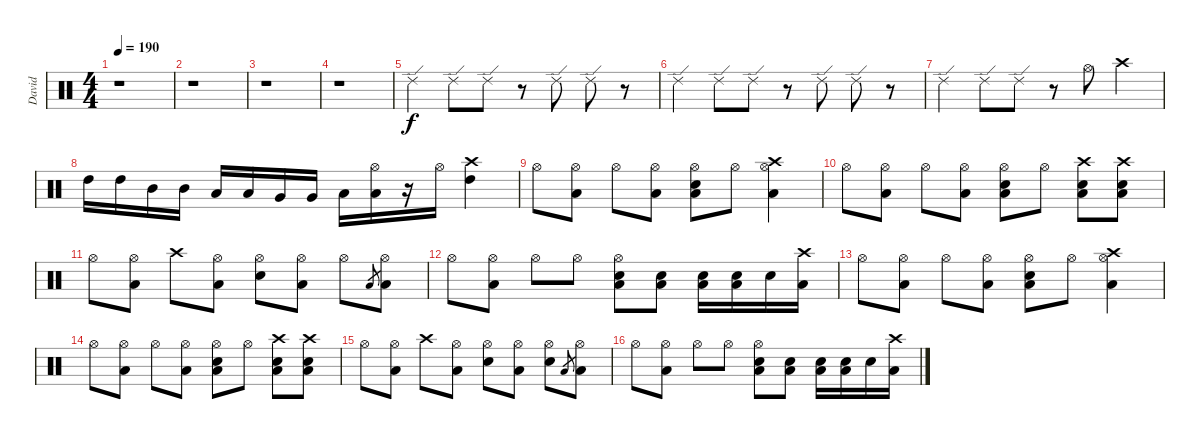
\track ("David" "David") {instrument percussion}
\staff {score}
\articulation defaults
\ts (4 4)
\tempo 190
\clef neutral
\ks c
r.1{dy f} |
r.1 |
r.1 |
r.1 |
"Ride (edge) 2".4 "Ride (edge) 2".8 "Ride (edge) 2".8 r.8 "Ride (edge) 2".8 "Ride (edge) 2".8 r.8 |
"Ride (edge) 2".4 "Ride (edge) 2".8 "Ride (edge) 2".8 r.8 "Ride (edge) 2".8 "Ride (edge) 2".8 r.8 |
"Ride (edge) 2".4 "Ride (edge) 2".8 "Ride (edge) 2".8 r.8 "Hi-Hat (open)".8 "Crash high (hit)".4 |
"High Tom (hit)".16 "High Tom (hit)".16 "Mid Tom (hit)".16 "Mid Tom (hit)".16 "Low Tom (hit)".16 "Low Tom (hit)".16 "Very Low Tom (hit)".16 "Very Low Tom (hit)".16 "Low Floor Tom (hit)".16 ("Hi-Hat (open)" "Low Floor Tom (hit)").16 r.16 "Hi-Hat (open)".16 ("Crash high (hit)" "High Tom (hit)").4 |
"Hi-Hat (open)".8 ("Hi-Hat (open)" "Low Tom (hit)").8 "Hi-Hat (open)".8 ("Hi-Hat (open)" "Low Tom (hit)").8 ("Hi-Hat (open)" "Electric Snare (hit)" "Low Tom (hit)").8 "Hi-Hat (open)".8 ("Crash high (hit)" "Hi-Hat (open)" "Low Tom (hit)").4 |
"Hi-Hat (open)".8 ("Hi-Hat (open)" "Low Tom (hit)").8 "Hi-Hat (open)".8 ("Hi-Hat (open)" "Low Tom (hit)").8 ("Hi-Hat (open)" "Electric Snare (hit)" "Low Tom (hit)").8 "Hi-Hat (open)".8 ("Crash high (hit)" "Electric Snare (hit)" "Low Tom (hit)").8 ("Crash high (hit)" "Electric Snare (hit)" "Low Tom (hit)").8 |
"Hi-Hat (open)".8 ("Hi-Hat (open)" "Low Tom (hit)").8 "Crash high (hit)".8 ("Hi-Hat (open)" "Low Tom (hit)").8 ("Hi-Hat (open)" "Electric Snare (hit)").8 ("Hi-Hat (open)" "Low Tom (hit)").8 "Hi-Hat (open)".8 "Low Tom (hit)".8{gr} ("Hi-Hat (open)" "Low Tom (hit)").8 |
"Hi-Hat (open)".8 ("Hi-Hat (open)" "Low Tom (hit)").8 "Hi-Hat (open)".8 "Hi-Hat (open)".8 ("Hi-Hat (open)" "Electric Snare (hit)" "Low Tom (hit)").8 ("Electric Snare (hit)" "Low Tom (hit)").8 ("Electric Snare (hit)" "Low Tom (hit)").16 ("Electric Snare (hit)" "Low Tom (hit)").16 "Electric Snare (hit)".16 ("Crash high (hit)" "Low Tom (hit)").16 |
"Hi-Hat (open)".8 ("Hi-Hat (open)" "Low Tom (hit)").8 "Hi-Hat (open)".8 ("Hi-Hat (open)" "Low Tom (hit)").8 ("Hi-Hat (open)" "Electric Snare (hit)" "Low Tom (hit)").8 "Hi-Hat (open)".8 ("Crash high (hit)" "Hi-Hat (open)" "Low Tom (hit)").4 |
"Hi-Hat (open)".8 ("Hi-Hat (open)" "Low Tom (hit)").8 "Hi-Hat (open)".8 ("Hi-Hat (open)" "Low Tom (hit)").8 ("Hi-Hat (open)" "Electric Snare (hit)" "Low Tom (hit)").8 "Hi-Hat (open)".8 ("Crash high (hit)" "Electric Snare (hit)" "Low Tom (hit)").8 ("Crash high (hit)" "Electric Snare (hit)" "Low Tom (hit)").8 |
"Hi-Hat (open)".8 ("Hi-Hat (open)" "Low Tom (hit)").8 "Crash high (hit)".8 ("Hi-Hat (open)" "Low Tom (hit)").8 ("Hi-Hat (open)" "Electric Snare (hit)").8 ("Hi-Hat (open)" "Low Tom (hit)").8 ("Hi-Hat (open)" "Electric Snare (hit)").8 "Low Tom (hit)".8{gr} ("Hi-Hat (open)" "Low Tom (hit)").8 |
"Hi-Hat (open)".8 ("Hi-Hat (open)" "Low Tom (hit)").8 "Hi-Hat (open)".8 "Hi-Hat (open)".8 ("Hi-Hat (open)" "Electric Snare (hit)" "Low Tom (hit)").8 ("Electric Snare (hit)" "Low Tom (hit)").8 ("Electric Snare (hit)" "Low Tom (hit)").16 ("Electric Snare (hit)" "Low Tom (hit)").16 "Electric Snare (hit)".16 ("Crash high (hit)" "Low Tom (hit)").16
